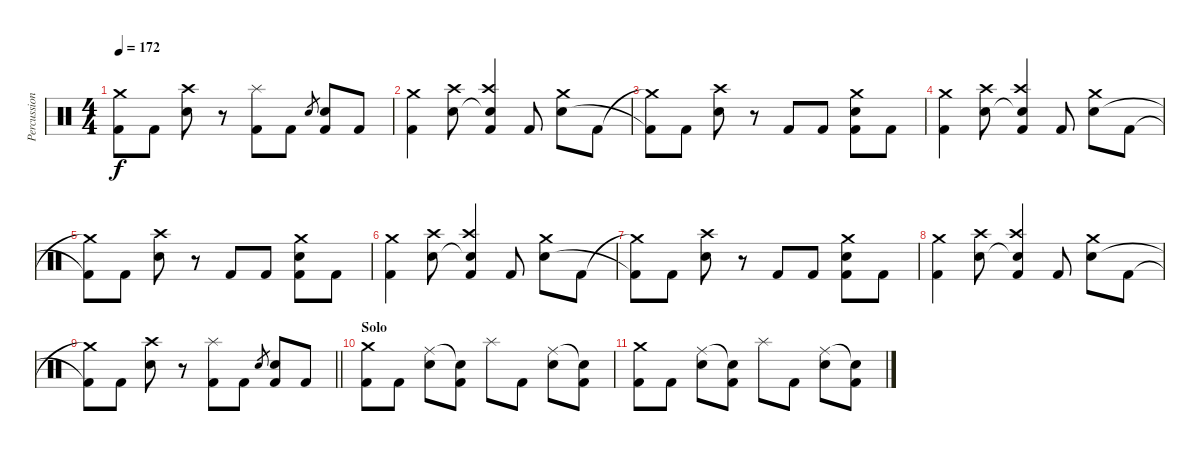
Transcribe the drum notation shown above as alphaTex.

\track ("Percussion" "Percussion") {instrument percussion}
\staff {score}
\articulation defaults
\ts (4 4)
\tempo 172
\clef neutral
\ks c
("Crash medium (hit)"{t} "Kick (hit) 2"{t}).8{dy f} "Kick (hit) 2".8 ("Crash high (hit)" "Electric Snare (hit)").8 r.8 ("Splash (hit)" "Kick (hit) 2").8 "Kick (hit) 2".8 "Electric Snare (hit)".8{gr} ("Electric Snare (hit)" "Kick (hit) 2").8 "Kick (hit) 2".8 |
("Crash medium (hit)" "Kick (hit) 2").4 ("Crash high (hit)" "Electric Snare (hit)").8 ("Crash high (hit)" "Electric Snare (hit)"{t} "Kick (hit) 2").4 "Kick (hit) 2".8 ("Crash medium (hit)" "Electric Snare (hit)").8 "Kick (hit) 2".8 |
("Crash medium (hit)"{t} "Kick (hit) 2"{t}).8 "Kick (hit) 2".8 ("Crash high (hit)" "Electric Snare (hit)").8 r.8 "Kick (hit) 2".8 "Kick (hit) 2".8 ("Crash medium (hit)" "Electric Snare (hit)" "Kick (hit) 2").8 "Kick (hit) 2".8 |
("Crash medium (hit)" "Kick (hit) 2").4 ("Crash high (hit)" "Electric Snare (hit)").8 ("Crash high (hit)" "Electric Snare (hit)"{t} "Kick (hit) 2").4 "Kick (hit) 2".8 ("Crash medium (hit)" "Electric Snare (hit)").8 "Kick (hit) 2".8 |
("Crash medium (hit)"{t} "Kick (hit) 2"{t}).8 "Kick (hit) 2".8 ("Crash high (hit)" "Electric Snare (hit)").8 r.8 "Kick (hit) 2".8 "Kick (hit) 2".8 ("Crash medium (hit)" "Electric Snare (hit)" "Kick (hit) 2").8 "Kick (hit) 2".8 |
("Crash medium (hit)" "Kick (hit) 2").4 ("Crash high (hit)" "Electric Snare (hit)").8 ("Crash high (hit)" "Electric Snare (hit)"{t} "Kick (hit) 2").4 "Kick (hit) 2".8 ("Crash medium (hit)" "Electric Snare (hit)").8 "Kick (hit) 2".8 |
("Crash medium (hit)"{t} "Kick (hit) 2"{t}).8 "Kick (hit) 2".8 ("Crash high (hit)" "Electric Snare (hit)").8 r.8 "Kick (hit) 2".8 "Kick (hit) 2".8 ("Crash medium (hit)" "Electric Snare (hit)" "Kick (hit) 2").8 "Kick (hit) 2".8 |
("Crash medium (hit)" "Kick (hit) 2").4 ("Crash high (hit)" "Electric Snare (hit)").8 ("Crash high (hit)" "Electric Snare (hit)"{t} "Kick (hit) 2").4 "Kick (hit) 2".8 ("Crash medium (hit)" "Electric Snare (hit)").8 "Kick (hit) 2".8 |
\barLineRight lightlight
("Crash medium (hit)"{t} "Kick (hit) 2"{t}).8 "Kick (hit) 2".8 ("Crash high (hit)" "Electric Snare (hit)").8 r.8 ("Splash (hit)" "Kick (hit) 2").8 "Kick (hit) 2".8 "Electric Snare (hit)".8{gr} ("Electric Snare (hit)" "Kick (hit) 2").8 "Kick (hit) 2".8 |
\section ("" "Solo")
("Crash medium (hit)" "Kick (hit) 2").8 "Kick (hit) 2".8 ("Ride (middle)" "Electric Snare (hit)").8 ("Electric Snare (hit)"{t} "Kick (hit) 2").8 "Splash (hit)".8 "Kick (hit) 2".8 ("Ride (middle)" "Electric Snare (hit)").8 ("Electric Snare (hit)"{t} "Kick (hit) 2").8 |
("Crash medium (hit)" "Kick (hit) 2").8 "Kick (hit) 2".8 ("Ride (middle)" "Electric Snare (hit)").8 ("Electric Snare (hit)"{t} "Kick (hit) 2").8 "Splash (hit)".8 "Kick (hit) 2".8 ("Ride (middle)" "Electric Snare (hit)").8 ("Electric Snare (hit)"{t} "Kick (hit) 2").8
